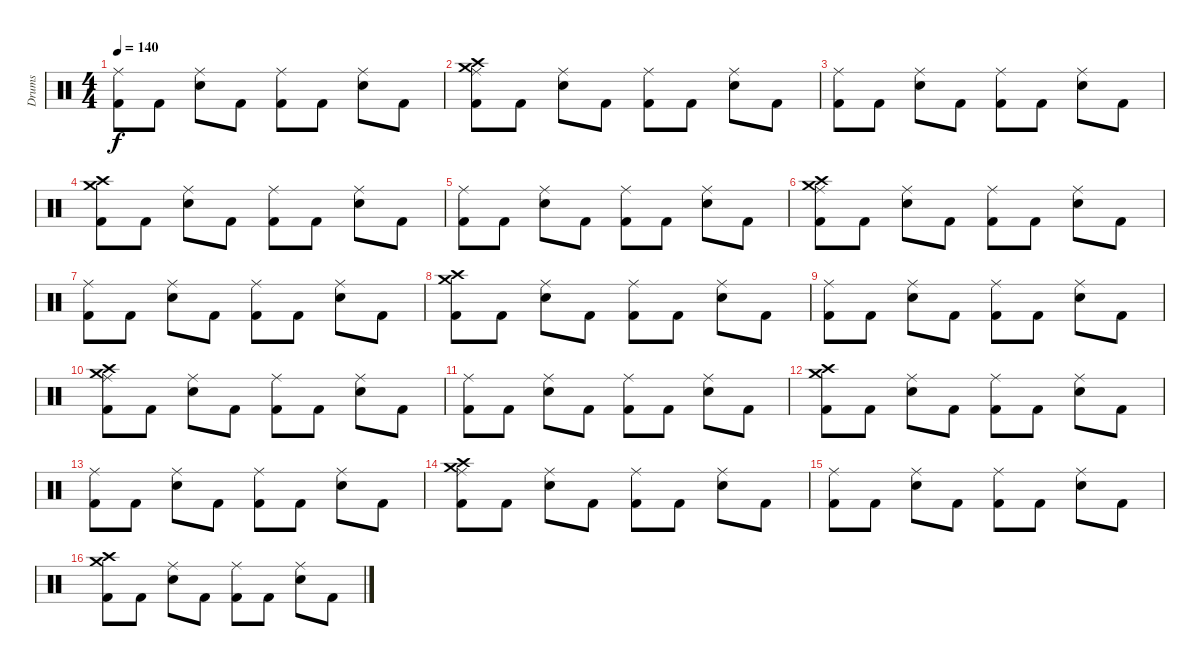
\track ("Drums" "Drums") {instrument percussion}
\staff {score}
\articulation defaults
\ts (4 4)
\tempo 140
\clef neutral
\ks c
("Ride (middle)" "Kick (hit) 2").8{dy f} "Kick (hit) 2".8 ("Ride (middle)" "Electric Snare (hit)").8 "Kick (hit) 2".8 ("Ride (middle)" "Kick (hit) 2").8 "Kick (hit) 2".8 ("Ride (middle)" "Electric Snare (hit)").8 "Kick (hit) 2".8 |
("Ride (middle)" "Crash high (hit)" "Crash medium (hit)" "Kick (hit) 2").8 "Kick (hit) 2".8 ("Ride (middle)" "Electric Snare (hit)").8 "Kick (hit) 2".8 ("Ride (middle)" "Kick (hit) 2").8 "Kick (hit) 2".8 ("Ride (middle)" "Electric Snare (hit)").8 "Kick (hit) 2".8 |
("Ride (middle)" "Kick (hit) 2").8 "Kick (hit) 2".8 ("Ride (middle)" "Electric Snare (hit)").8 "Kick (hit) 2".8 ("Ride (middle)" "Kick (hit) 2").8 "Kick (hit) 2".8 ("Ride (middle)" "Electric Snare (hit)").8 "Kick (hit) 2".8 |
("Crash medium (hit)" "Crash high (hit)" "Kick (hit) 2").8 "Kick (hit) 2".8 ("Ride (middle)" "Electric Snare (hit)").8 "Kick (hit) 2".8 ("Ride (middle)" "Kick (hit) 2").8 "Kick (hit) 2".8 ("Ride (middle)" "Electric Snare (hit)").8 "Kick (hit) 2".8 |
("Ride (middle)" "Kick (hit) 2").8 "Kick (hit) 2".8 ("Ride (middle)" "Electric Snare (hit)").8 "Kick (hit) 2".8 ("Ride (middle)" "Kick (hit) 2").8 "Kick (hit) 2".8 ("Ride (middle)" "Electric Snare (hit)").8 "Kick (hit) 2".8 |
("Ride (middle)" "Crash high (hit)" "Crash medium (hit)" "Kick (hit) 2").8 "Kick (hit) 2".8 ("Ride (middle)" "Electric Snare (hit)").8 "Kick (hit) 2".8 ("Ride (middle)" "Kick (hit) 2").8 "Kick (hit) 2".8 ("Ride (middle)" "Electric Snare (hit)").8 "Kick (hit) 2".8 |
("Ride (middle)" "Kick (hit) 2").8 "Kick (hit) 2".8 ("Ride (middle)" "Electric Snare (hit)").8 "Kick (hit) 2".8 ("Ride (middle)" "Kick (hit) 2").8 "Kick (hit) 2".8 ("Ride (middle)" "Electric Snare (hit)").8 "Kick (hit) 2".8 |
("Crash medium (hit)" "Crash high (hit)" "Kick (hit) 2").8 "Kick (hit) 2".8 ("Ride (middle)" "Electric Snare (hit)").8 "Kick (hit) 2".8 ("Ride (middle)" "Kick (hit) 2").8 "Kick (hit) 2".8 ("Ride (middle)" "Electric Snare (hit)").8 "Kick (hit) 2".8 |
("Ride (middle)" "Kick (hit) 2").8 "Kick (hit) 2".8 ("Ride (middle)" "Electric Snare (hit)").8 "Kick (hit) 2".8 ("Ride (middle)" "Kick (hit) 2").8 "Kick (hit) 2".8 ("Ride (middle)" "Electric Snare (hit)").8 "Kick (hit) 2".8 |
("Ride (middle)" "Crash high (hit)" "Crash medium (hit)" "Kick (hit) 2").8 "Kick (hit) 2".8 ("Ride (middle)" "Electric Snare (hit)").8 "Kick (hit) 2".8 ("Ride (middle)" "Kick (hit) 2").8 "Kick (hit) 2".8 ("Ride (middle)" "Electric Snare (hit)").8 "Kick (hit) 2".8 |
("Ride (middle)" "Kick (hit) 2").8 "Kick (hit) 2".8 ("Ride (middle)" "Electric Snare (hit)").8 "Kick (hit) 2".8 ("Ride (middle)" "Kick (hit) 2").8 "Kick (hit) 2".8 ("Ride (middle)" "Electric Snare (hit)").8 "Kick (hit) 2".8 |
("Crash medium (hit)" "Crash high (hit)" "Kick (hit) 2").8 "Kick (hit) 2".8 ("Ride (middle)" "Electric Snare (hit)").8 "Kick (hit) 2".8 ("Ride (middle)" "Kick (hit) 2").8 "Kick (hit) 2".8 ("Ride (middle)" "Electric Snare (hit)").8 "Kick (hit) 2".8 |
("Ride (middle)" "Kick (hit) 2").8 "Kick (hit) 2".8 ("Ride (middle)" "Electric Snare (hit)").8 "Kick (hit) 2".8 ("Ride (middle)" "Kick (hit) 2").8 "Kick (hit) 2".8 ("Ride (middle)" "Electric Snare (hit)").8 "Kick (hit) 2".8 |
("Ride (middle)" "Crash high (hit)" "Crash medium (hit)" "Kick (hit) 2").8 "Kick (hit) 2".8 ("Ride (middle)" "Electric Snare (hit)").8 "Kick (hit) 2".8 ("Ride (middle)" "Kick (hit) 2").8 "Kick (hit) 2".8 ("Ride (middle)" "Electric Snare (hit)").8 "Kick (hit) 2".8 |
("Ride (middle)" "Kick (hit) 2").8 "Kick (hit) 2".8 ("Ride (middle)" "Electric Snare (hit)").8 "Kick (hit) 2".8 ("Ride (middle)" "Kick (hit) 2").8 "Kick (hit) 2".8 ("Ride (middle)" "Electric Snare (hit)").8 "Kick (hit) 2".8 |
("Crash medium (hit)" "Crash high (hit)" "Kick (hit) 2").8 "Kick (hit) 2".8 ("Ride (middle)" "Electric Snare (hit)").8 "Kick (hit) 2".8 ("Ride (middle)" "Kick (hit) 2").8 "Kick (hit) 2".8 ("Ride (middle)" "Electric Snare (hit)").8 "Kick (hit) 2".8
